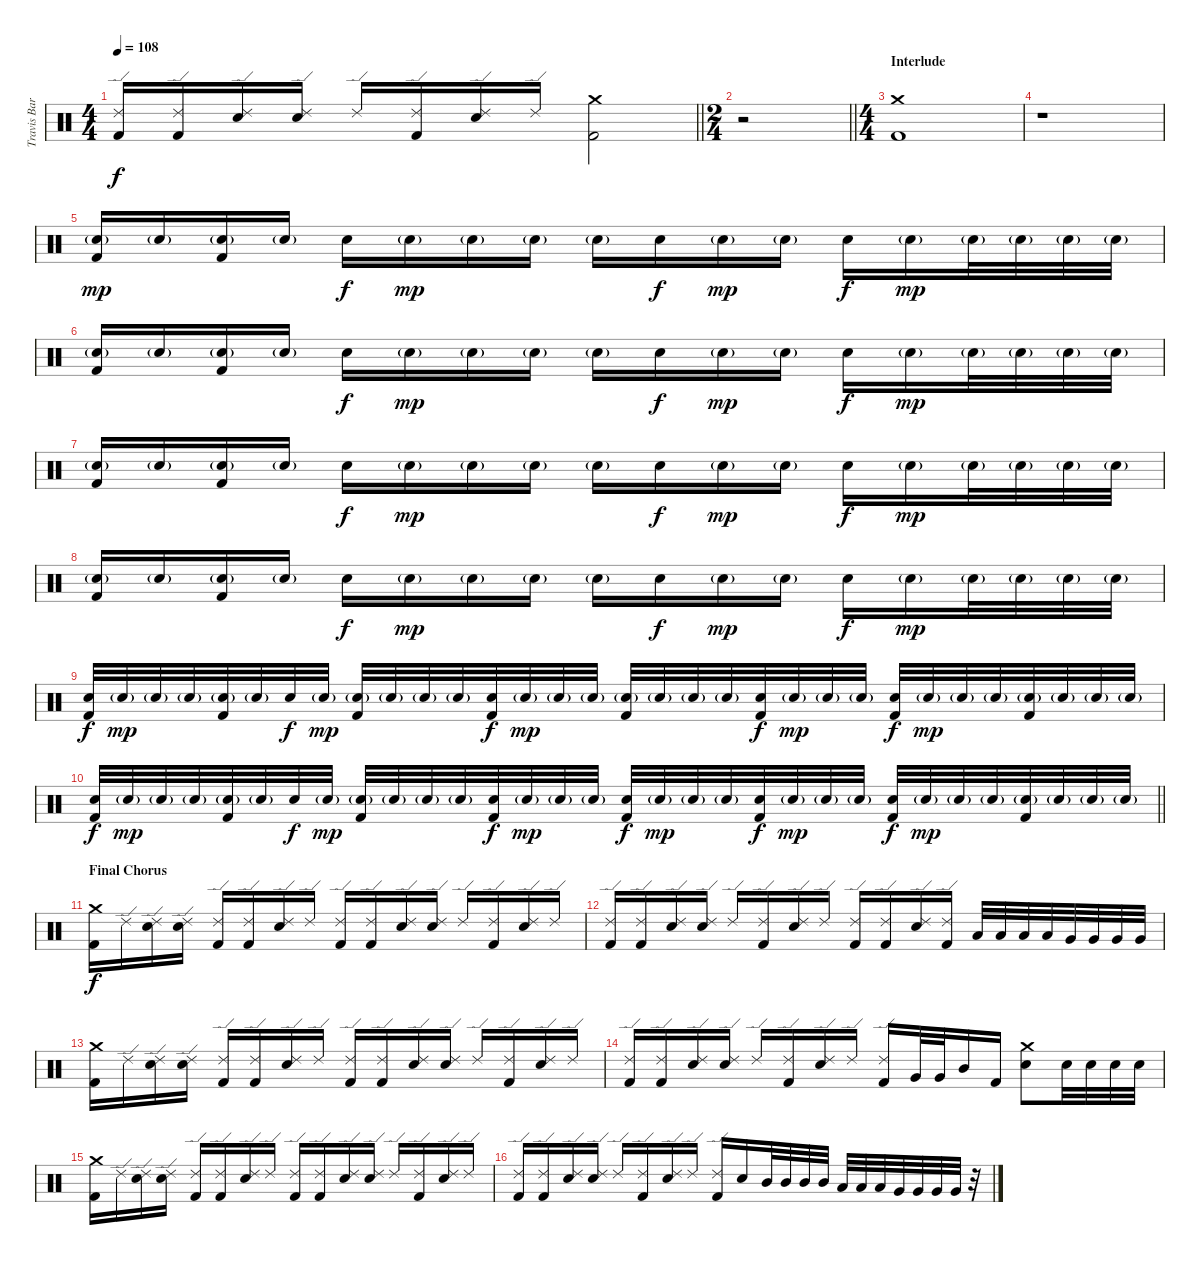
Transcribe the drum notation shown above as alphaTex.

\track ("Travis Barker" "Travis Bar") {instrument percussion}
\staff {score}
\articulation defaults
\ts (4 4)
\tempo 108
\clef neutral
\barLineRight lightlight
\ks c
("Ride (edge) 2" "Kick (hit) 2").16{dy f} ("Ride (edge) 2" "Kick (hit) 2").16 ("Ride (edge) 2" "Electric Snare (hit)").16 ("Ride (edge) 2" "Electric Snare (hit)").16 "Ride (edge) 2".16 ("Ride (edge) 2" "Kick (hit) 2").16 ("Ride (edge) 2" "Electric Snare (hit)").16 "Ride (edge) 2".16 ("Crash medium (hit)" "Kick (hit) 2").2 |
\ts (2 4)
\barLineRight lightlight
r.2 |
\ts (4 4)
\section ("" "Interlude")
("Crash medium (hit)" "Kick (hit) 2").1 |
r.1 |
("Electric Snare (hit)"{g} "Kick (hit) 2").16{dy mp} "Electric Snare (hit)"{g}.16 ("Electric Snare (hit)"{g} "Kick (hit) 2").16 "Electric Snare (hit)"{g}.16 "Electric Snare (hit)".16{dy f} "Electric Snare (hit)"{g}.16{dy mp} "Electric Snare (hit)"{g}.16 "Electric Snare (hit)"{g}.16 "Electric Snare (hit)"{g}.16 "Electric Snare (hit)".16{dy f} "Electric Snare (hit)"{g}.16{dy mp} "Electric Snare (hit)"{g}.16 "Electric Snare (hit)".16{dy f} "Electric Snare (hit)"{g}.16{dy mp} "Electric Snare (hit)"{g}.32 "Electric Snare (hit)"{g}.32 "Electric Snare (hit)"{g}.32 "Electric Snare (hit)"{g}.32 |
("Electric Snare (hit)"{g} "Kick (hit) 2").16 "Electric Snare (hit)"{g}.16 ("Electric Snare (hit)"{g} "Kick (hit) 2").16 "Electric Snare (hit)"{g}.16 "Electric Snare (hit)".16{dy f} "Electric Snare (hit)"{g}.16{dy mp} "Electric Snare (hit)"{g}.16 "Electric Snare (hit)"{g}.16 "Electric Snare (hit)"{g}.16 "Electric Snare (hit)".16{dy f} "Electric Snare (hit)"{g}.16{dy mp} "Electric Snare (hit)"{g}.16 "Electric Snare (hit)".16{dy f} "Electric Snare (hit)"{g}.16{dy mp} "Electric Snare (hit)"{g}.32 "Electric Snare (hit)"{g}.32 "Electric Snare (hit)"{g}.32 "Electric Snare (hit)"{g}.32 |
("Electric Snare (hit)"{g} "Kick (hit) 2").16 "Electric Snare (hit)"{g}.16 ("Electric Snare (hit)"{g} "Kick (hit) 2").16 "Electric Snare (hit)"{g}.16 "Electric Snare (hit)".16{dy f} "Electric Snare (hit)"{g}.16{dy mp} "Electric Snare (hit)"{g}.16 "Electric Snare (hit)"{g}.16 "Electric Snare (hit)"{g}.16 "Electric Snare (hit)".16{dy f} "Electric Snare (hit)"{g}.16{dy mp} "Electric Snare (hit)"{g}.16 "Electric Snare (hit)".16{dy f} "Electric Snare (hit)"{g}.16{dy mp} "Electric Snare (hit)"{g}.32 "Electric Snare (hit)"{g}.32 "Electric Snare (hit)"{g}.32 "Electric Snare (hit)"{g}.32 |
("Electric Snare (hit)"{g} "Kick (hit) 2").16 "Electric Snare (hit)"{g}.16 ("Electric Snare (hit)"{g} "Kick (hit) 2").16 "Electric Snare (hit)"{g}.16 "Electric Snare (hit)".16{dy f} "Electric Snare (hit)"{g}.16{dy mp} "Electric Snare (hit)"{g}.16 "Electric Snare (hit)"{g}.16 "Electric Snare (hit)"{g}.16 "Electric Snare (hit)".16{dy f} "Electric Snare (hit)"{g}.16{dy mp} "Electric Snare (hit)"{g}.16 "Electric Snare (hit)".16{dy f} "Electric Snare (hit)"{g}.16{dy mp} "Electric Snare (hit)"{g}.32 "Electric Snare (hit)"{g}.32 "Electric Snare (hit)"{g}.32 "Electric Snare (hit)"{g}.32 |
("Electric Snare (hit)" "Kick (hit) 2").32{dy f} "Electric Snare (hit)"{g}.32{dy mp} "Electric Snare (hit)"{g}.32 "Electric Snare (hit)"{g}.32 ("Electric Snare (hit)"{g} "Kick (hit) 2").32 "Electric Snare (hit)"{g}.32 "Electric Snare (hit)".32{dy f} "Electric Snare (hit)"{g}.32{dy mp} ("Electric Snare (hit)"{g} "Kick (hit) 2").32 "Electric Snare (hit)"{g}.32 "Electric Snare (hit)"{g}.32 "Electric Snare (hit)"{g}.32 ("Electric Snare (hit)" "Kick (hit) 2").32{dy f} "Electric Snare (hit)"{g}.32{dy mp} "Electric Snare (hit)"{g}.32 "Electric Snare (hit)"{g}.32 ("Electric Snare (hit)"{g} "Kick (hit) 2").32 "Electric Snare (hit)"{g}.32 "Electric Snare (hit)"{g}.32 "Electric Snare (hit)"{g}.32 ("Electric Snare (hit)" "Kick (hit) 2").32{dy f} "Electric Snare (hit)"{g}.32{dy mp} "Electric Snare (hit)"{g}.32 "Electric Snare (hit)"{g}.32 ("Electric Snare (hit)" "Kick (hit) 2").32{dy f} "Electric Snare (hit)"{g}.32{dy mp} "Electric Snare (hit)"{g}.32 "Electric Snare (hit)"{g}.32 ("Electric Snare (hit)"{g} "Kick (hit) 2").32 "Electric Snare (hit)"{g}.32 "Electric Snare (hit)"{g}.32 "Electric Snare (hit)"{g}.32 |
\barLineRight lightlight
("Electric Snare (hit)" "Kick (hit) 2").32{dy f} "Electric Snare (hit)"{g}.32{dy mp} "Electric Snare (hit)"{g}.32 "Electric Snare (hit)"{g}.32 ("Electric Snare (hit)"{g} "Kick (hit) 2").32 "Electric Snare (hit)"{g}.32 "Electric Snare (hit)".32{dy f} "Electric Snare (hit)"{g}.32{dy mp} ("Electric Snare (hit)"{g} "Kick (hit) 2").32 "Electric Snare (hit)"{g}.32 "Electric Snare (hit)"{g}.32 "Electric Snare (hit)"{g}.32 ("Electric Snare (hit)" "Kick (hit) 2").32{dy f} "Electric Snare (hit)"{g}.32{dy mp} "Electric Snare (hit)"{g}.32 "Electric Snare (hit)"{g}.32 ("Electric Snare (hit)" "Kick (hit) 2").32{dy f} "Electric Snare (hit)"{g}.32{dy mp} "Electric Snare (hit)"{g}.32 "Electric Snare (hit)"{g}.32 ("Electric Snare (hit)" "Kick (hit) 2").32{dy f} "Electric Snare (hit)"{g}.32{dy mp} "Electric Snare (hit)"{g}.32 "Electric Snare (hit)"{g}.32 ("Electric Snare (hit)" "Kick (hit) 2").32{dy f} "Electric Snare (hit)"{g}.32{dy mp} "Electric Snare (hit)"{g}.32 "Electric Snare (hit)"{g}.32 ("Electric Snare (hit)"{g} "Kick (hit) 2").32 "Electric Snare (hit)"{g}.32 "Electric Snare (hit)"{g}.32 "Electric Snare (hit)"{g}.32 |
\section ("" "Final Chorus")
("Crash medium (hit)" "Kick (hit) 2").16{dy f} "Ride (edge) 2".16 ("Ride (edge) 2" "Electric Snare (hit)").16 ("Ride (edge) 2" "Electric Snare (hit)").16 ("Ride (edge) 2" "Kick (hit) 2").16 ("Ride (edge) 2" "Kick (hit) 2").16 ("Ride (edge) 2" "Electric Snare (hit)").16 "Ride (edge) 2".16 ("Ride (edge) 2" "Kick (hit) 2").16 ("Ride (edge) 2" "Kick (hit) 2").16 ("Ride (edge) 2" "Electric Snare (hit)").16 ("Ride (edge) 2" "Electric Snare (hit)").16 "Ride (edge) 2".16 ("Ride (edge) 2" "Kick (hit) 2").16 ("Ride (edge) 2" "Electric Snare (hit)").16 "Ride (edge) 2".16 |
("Ride (edge) 2" "Kick (hit) 2").16 ("Ride (edge) 2" "Kick (hit) 2").16 ("Ride (edge) 2" "Electric Snare (hit)").16 ("Ride (edge) 2" "Electric Snare (hit)").16 "Ride (edge) 2".16 ("Ride (edge) 2" "Kick (hit) 2").16 ("Ride (edge) 2" "Electric Snare (hit)").16 "Ride (edge) 2".16 ("Ride (edge) 2" "Kick (hit) 2").16 ("Ride (edge) 2" "Kick (hit) 2").16 ("Ride (edge) 2" "Electric Snare (hit)").16 ("Ride (edge) 2" "Kick (hit) 2").16 "Low Tom (hit)".32 "Low Tom (hit)".32 "Low Tom (hit)".32 "Low Tom (hit)".32 "Very Low Tom (hit)".32 "Very Low Tom (hit)".32 "Very Low Tom (hit)".32 "Very Low Tom (hit)".32 |
("Crash medium (hit)" "Kick (hit) 2").16 "Ride (edge) 2".16 ("Ride (edge) 2" "Electric Snare (hit)").16 ("Ride (edge) 2" "Electric Snare (hit)").16 ("Ride (edge) 2" "Kick (hit) 2").16 ("Ride (edge) 2" "Kick (hit) 2").16 ("Ride (edge) 2" "Electric Snare (hit)").16 "Ride (edge) 2".16 ("Ride (edge) 2" "Kick (hit) 2").16 ("Ride (edge) 2" "Kick (hit) 2").16 ("Ride (edge) 2" "Electric Snare (hit)").16 ("Ride (edge) 2" "Electric Snare (hit)").16 "Ride (edge) 2".16 ("Ride (edge) 2" "Kick (hit) 2").16 ("Ride (edge) 2" "Electric Snare (hit)").16 "Ride (edge) 2".16 |
("Ride (edge) 2" "Kick (hit) 2").16 ("Ride (edge) 2" "Kick (hit) 2").16 ("Ride (edge) 2" "Electric Snare (hit)").16 ("Ride (edge) 2" "Electric Snare (hit)").16 "Ride (edge) 2".16 ("Ride (edge) 2" "Kick (hit) 2").16 ("Ride (edge) 2" "Electric Snare (hit)").16 "Ride (edge) 2".16 ("Ride (edge) 2" "Kick (hit) 2").16 "Very Low Tom (hit)".32 "Very Low Tom (hit)".32 "Mid Tom (hit)".16 "Kick (hit) 2".16 ("Crash medium (hit)" "Electric Snare (hit)").8 "Electric Snare (hit)".32 "Electric Snare (hit)".32 "Electric Snare (hit)".32 "Electric Snare (hit)".32 |
("Crash medium (hit)" "Kick (hit) 2").16 "Ride (edge) 2".16 ("Ride (edge) 2" "Electric Snare (hit)").16 ("Ride (edge) 2" "Electric Snare (hit)").16 ("Ride (edge) 2" "Kick (hit) 2").16 ("Ride (edge) 2" "Kick (hit) 2").16 ("Ride (edge) 2" "Electric Snare (hit)").16 "Ride (edge) 2".16 ("Ride (edge) 2" "Kick (hit) 2").16 ("Ride (edge) 2" "Kick (hit) 2").16 ("Ride (edge) 2" "Electric Snare (hit)").16 ("Ride (edge) 2" "Electric Snare (hit)").16 "Ride (edge) 2".16 ("Ride (edge) 2" "Kick (hit) 2").16 ("Ride (edge) 2" "Electric Snare (hit)").16 "Ride (edge) 2".16 |
("Ride (edge) 2" "Kick (hit) 2").16 ("Ride (edge) 2" "Kick (hit) 2").16 ("Ride (edge) 2" "Electric Snare (hit)").16 ("Ride (edge) 2" "Electric Snare (hit)").16 "Ride (edge) 2".16 ("Ride (edge) 2" "Kick (hit) 2").16 ("Ride (edge) 2" "Electric Snare (hit)").16 "Ride (edge) 2".16 ("Ride (edge) 2" "Kick (hit) 2").16 "Electric Snare (hit)".16 "Mid Tom (hit)".32 "Mid Tom (hit)".32 "Mid Tom (hit)".32 "Mid Tom (hit)".32 "Low Tom (hit)".32 "Low Tom (hit)".32 "Low Tom (hit)".32 "Very Low Tom (hit)".32 "Very Low Tom (hit)".32 "Very Low Tom (hit)".32 "Very Low Tom (hit)".32 r.32
